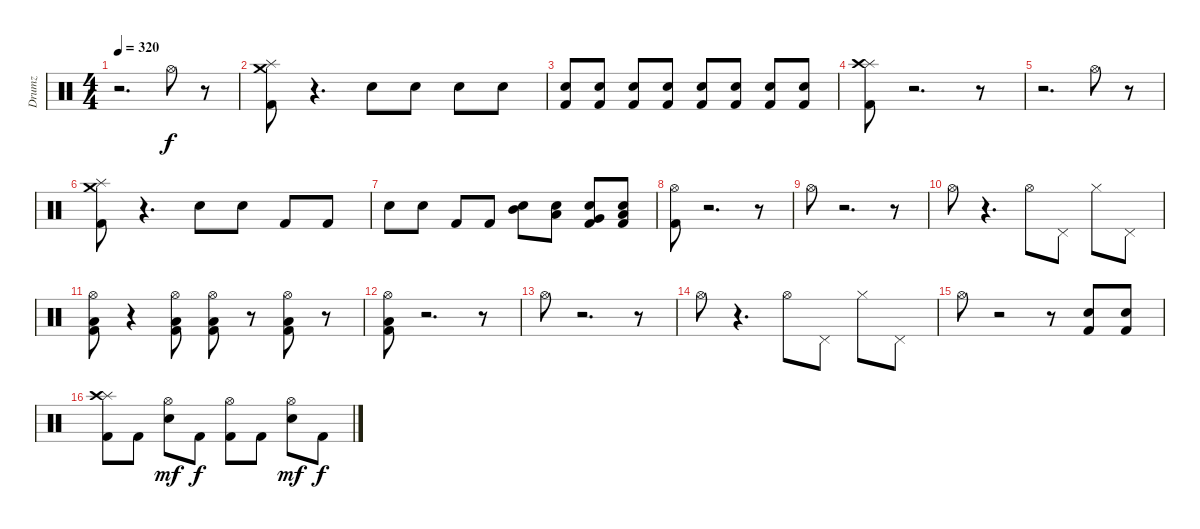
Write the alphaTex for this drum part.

\track ("Drumz" "Drumz") {instrument percussion}
\staff {score}
\articulation defaults
\ts (4 4)
\tempo 320
\clef neutral
\ks c
r.2{d dy f} "Hi-Hat (open)".8 r.8 |
("Kick (hit) 2" "Splash (hit)" "Crash medium (hit)").8 r.4{d} "Snare (hit) 2".8 "Snare (hit) 2".8 "Snare (hit) 2".8 "Snare (hit) 2".8 |
("Snare (hit) 2" "Kick (hit) 2").8 ("Snare (hit) 2" "Kick (hit) 2").8 ("Kick (hit) 2" "Snare (hit) 2").8 ("Kick (hit) 2" "Snare (hit) 2").8 ("Snare (hit) 2" "Kick (hit) 2").8 ("Kick (hit) 2" "Snare (hit) 2").8 ("Snare (hit) 2" "Kick (hit) 2").8 ("Snare (hit) 2" "Kick (hit) 2").8 |
("Kick (hit) 2" "Splash (hit)" "Crash high (hit)").8 r.2{d} r.8 |
r.2{d} "Hi-Hat (open)".8 r.8 |
("Kick (hit) 2" "Splash (hit)" "Crash medium (hit)").8 r.4{d} "Snare (hit) 2".8 "Snare (hit) 2".8 "Kick (hit) 2".8 "Kick (hit) 2".8 |
"Snare (hit) 2".8 "Snare (hit) 2".8 "Kick (hit) 2".8 "Kick (hit) 2".8 ("Mid Tom (hit)" "Snare (hit) 2").8 ("Snare (hit) 2" "Low Tom (hit)").8 ("Snare (hit) 2" "Kick (hit) 2" "Very Low Tom (hit)").8 ("Snare (hit) 2" "Kick (hit) 2" "Low Floor Tom (hit)").8 |
("Hi-Hat (open)" "Kick (hit) 2").8 r.2{d} r.8 |
"Hi-Hat (open)".8 r.2{d} r.8 |
"Hi-Hat (open)".8 r.4{d} "Hi-Hat (open)".8 "Pedal Hi-Hat (hit)".8 "Hi-Hat (closed)".8 "Pedal Hi-Hat (hit)".8 |
("Hi-Hat (open)" "Low Floor Tom (hit)" "Kick (hit) 2").8 r.4 ("Kick (hit) 2" "Low Floor Tom (hit)" "Hi-Hat (open)").8 ("Low Floor Tom (hit)" "Hi-Hat (open)" "Kick (hit) 2").8 r.8 ("Hi-Hat (open)" "Low Floor Tom (hit)" "Kick (hit) 2").8 r.8 |
("Hi-Hat (open)" "Low Floor Tom (hit)" "Kick (hit) 2").8 r.2{d} r.8 |
"Hi-Hat (open)".8 r.2{d} r.8 |
"Hi-Hat (open)".8 r.4{d} "Hi-Hat (open)".8 "Pedal Hi-Hat (hit)".8 "Hi-Hat (closed)".8 "Pedal Hi-Hat (hit)".8 |
"Hi-Hat (open)".8 r.2 r.8 ("Kick (hit) 2" "Snare (hit) 2").8 ("Kick (hit) 2" "Snare (hit) 2").8 |
("Kick (hit) 2" "Splash (hit)" "Crash high (hit)").8 "Kick (hit) 2".8 ("Snare (hit) 2" "Hi-Hat (open)").8{dy mf} "Kick (hit) 2".8{dy f} ("Kick (hit) 2" "Hi-Hat (open)").8 "Kick (hit) 2".8 ("Snare (hit) 2" "Hi-Hat (open)").8{dy mf} "Kick (hit) 2".8{dy f}
